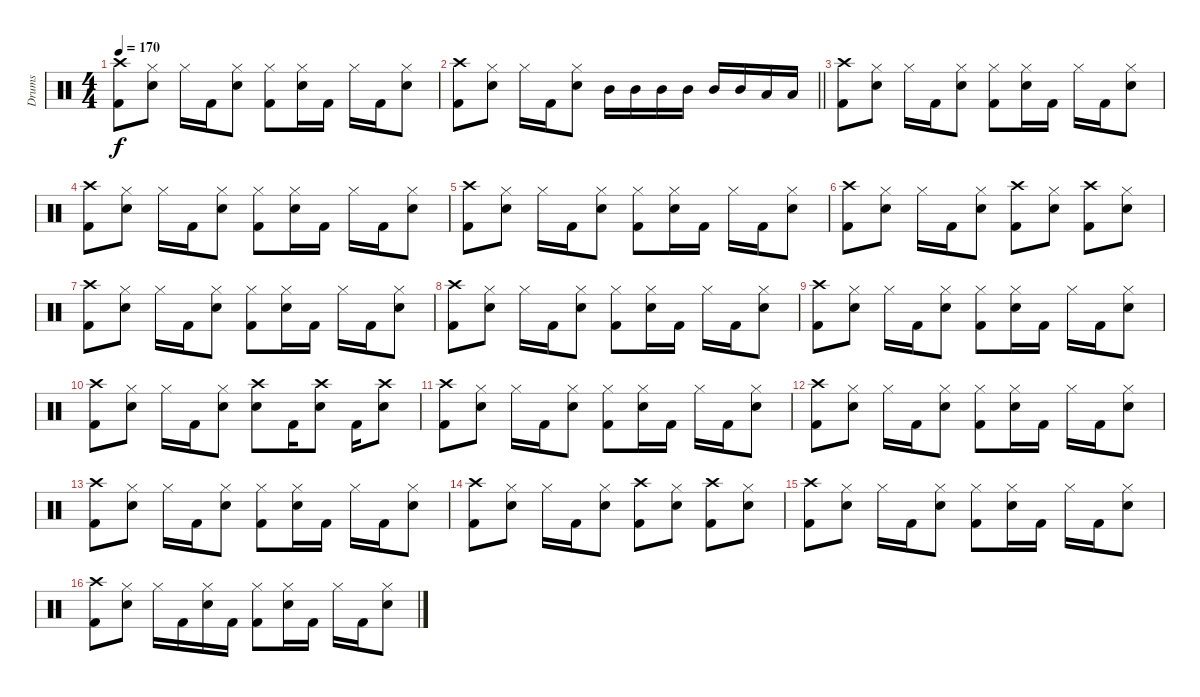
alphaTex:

\track ("Drums" "Drums") {instrument percussion}
\staff {score}
\articulation defaults
\ts (4 4)
\tempo 170
\clef neutral
\ks c
("Crash high (hit)" "Kick (hit) 2").8{dy f} ("Hi-Hat (closed)" "Snare (hit) 2").8 "Hi-Hat (closed)".16 "Kick (hit) 2".16 ("Hi-Hat (closed)" "Snare (hit) 2").8 ("Hi-Hat (closed)" "Kick (hit) 2").8 ("Hi-Hat (closed)" "Snare (hit) 2").16 "Kick (hit) 2".16 "Hi-Hat (closed)".16 "Kick (hit) 2".16 ("Hi-Hat (closed)" "Snare (hit) 2").8 |
\barLineRight lightlight
("Crash high (hit)" "Kick (hit) 2").8 ("Hi-Hat (closed)" "Snare (hit) 2").8 "Hi-Hat (closed)".16 "Kick (hit) 2".16 ("Hi-Hat (closed)" "Snare (hit) 2").8 "Mid Tom (hit)".16 "Mid Tom (hit)".16 "Mid Tom (hit)".16 "Mid Tom (hit)".16 "Mid Tom (hit)".16 "Mid Tom (hit)".16 "Low Tom (hit)".16 "Low Tom (hit)".16 |
("Crash high (hit)" "Kick (hit) 2").8 ("Hi-Hat (closed)" "Snare (hit) 2").8 "Hi-Hat (closed)".16 "Kick (hit) 2".16 ("Hi-Hat (closed)" "Snare (hit) 2").8 ("Hi-Hat (closed)" "Kick (hit) 2").8 ("Hi-Hat (closed)" "Snare (hit) 2").16 "Kick (hit) 2".16 "Hi-Hat (closed)".16 "Kick (hit) 2".16 ("Hi-Hat (closed)" "Snare (hit) 2").8 |
("Crash high (hit)" "Kick (hit) 2").8 ("Hi-Hat (closed)" "Snare (hit) 2").8 "Hi-Hat (closed)".16 "Kick (hit) 2".16 ("Hi-Hat (closed)" "Snare (hit) 2").8 ("Hi-Hat (closed)" "Kick (hit) 2").8 ("Hi-Hat (closed)" "Snare (hit) 2").16 "Kick (hit) 2".16 "Hi-Hat (closed)".16 "Kick (hit) 2".16 ("Hi-Hat (closed)" "Snare (hit) 2").8 |
("Crash high (hit)" "Kick (hit) 2").8 ("Hi-Hat (closed)" "Snare (hit) 2").8 "Hi-Hat (closed)".16 "Kick (hit) 2".16 ("Hi-Hat (closed)" "Snare (hit) 2").8 ("Hi-Hat (closed)" "Kick (hit) 2").8 ("Hi-Hat (closed)" "Snare (hit) 2").16 "Kick (hit) 2".16 "Hi-Hat (closed)".16 "Kick (hit) 2".16 ("Hi-Hat (closed)" "Snare (hit) 2").8 |
("Crash high (hit)" "Kick (hit) 2").8 ("Hi-Hat (closed)" "Snare (hit) 2").8 "Hi-Hat (closed)".16 "Kick (hit) 2".16 ("Hi-Hat (closed)" "Snare (hit) 2").8 ("Crash high (hit)" "Kick (hit) 2").8 ("Hi-Hat (closed)" "Snare (hit) 2").8 ("Crash high (hit)" "Kick (hit) 2").8 ("Hi-Hat (closed)" "Snare (hit) 2").8 |
("Crash high (hit)" "Kick (hit) 2").8 ("Hi-Hat (closed)" "Snare (hit) 2").8 "Hi-Hat (closed)".16 "Kick (hit) 2".16 ("Hi-Hat (closed)" "Snare (hit) 2").8 ("Hi-Hat (closed)" "Kick (hit) 2").8 ("Hi-Hat (closed)" "Snare (hit) 2").16 "Kick (hit) 2".16 "Hi-Hat (closed)".16 "Kick (hit) 2".16 ("Hi-Hat (closed)" "Snare (hit) 2").8 |
("Crash high (hit)" "Kick (hit) 2").8 ("Hi-Hat (closed)" "Snare (hit) 2").8 "Hi-Hat (closed)".16 "Kick (hit) 2".16 ("Hi-Hat (closed)" "Snare (hit) 2").8 ("Hi-Hat (closed)" "Kick (hit) 2").8 ("Hi-Hat (closed)" "Snare (hit) 2").16 "Kick (hit) 2".16 "Hi-Hat (closed)".16 "Kick (hit) 2".16 ("Hi-Hat (closed)" "Snare (hit) 2").8 |
("Crash high (hit)" "Kick (hit) 2").8 ("Hi-Hat (closed)" "Snare (hit) 2").8 "Hi-Hat (closed)".16 "Kick (hit) 2".16 ("Hi-Hat (closed)" "Snare (hit) 2").8 ("Hi-Hat (closed)" "Kick (hit) 2").8 ("Hi-Hat (closed)" "Snare (hit) 2").16 "Kick (hit) 2".16 "Hi-Hat (closed)".16 "Kick (hit) 2".16 ("Hi-Hat (closed)" "Snare (hit) 2").8 |
("Crash high (hit)" "Kick (hit) 2").8 ("Hi-Hat (closed)" "Snare (hit) 2").8 "Hi-Hat (closed)".16 "Kick (hit) 2".16 ("Hi-Hat (closed)" "Snare (hit) 2").8 ("Crash high (hit)" "Snare (hit) 2").8 "Kick (hit) 2".16 ("Crash high (hit)" "Snare (hit) 2").8 "Kick (hit) 2".16 ("Crash high (hit)" "Snare (hit) 2").8 |
("Crash high (hit)" "Kick (hit) 2").8 ("Hi-Hat (closed)" "Snare (hit) 2").8 "Hi-Hat (closed)".16 "Kick (hit) 2".16 ("Hi-Hat (closed)" "Snare (hit) 2").8 ("Hi-Hat (closed)" "Kick (hit) 2").8 ("Hi-Hat (closed)" "Snare (hit) 2").16 "Kick (hit) 2".16 "Hi-Hat (closed)".16 "Kick (hit) 2".16 ("Hi-Hat (closed)" "Snare (hit) 2").8 |
("Crash high (hit)" "Kick (hit) 2").8 ("Hi-Hat (closed)" "Snare (hit) 2").8 "Hi-Hat (closed)".16 "Kick (hit) 2".16 ("Hi-Hat (closed)" "Snare (hit) 2").8 ("Hi-Hat (closed)" "Kick (hit) 2").8 ("Hi-Hat (closed)" "Snare (hit) 2").16 "Kick (hit) 2".16 "Hi-Hat (closed)".16 "Kick (hit) 2".16 ("Hi-Hat (closed)" "Snare (hit) 2").8 |
("Crash high (hit)" "Kick (hit) 2").8 ("Hi-Hat (closed)" "Snare (hit) 2").8 "Hi-Hat (closed)".16 "Kick (hit) 2".16 ("Hi-Hat (closed)" "Snare (hit) 2").8 ("Hi-Hat (closed)" "Kick (hit) 2").8 ("Hi-Hat (closed)" "Snare (hit) 2").16 "Kick (hit) 2".16 "Hi-Hat (closed)".16 "Kick (hit) 2".16 ("Hi-Hat (closed)" "Snare (hit) 2").8 |
("Crash high (hit)" "Kick (hit) 2").8 ("Hi-Hat (closed)" "Snare (hit) 2").8 "Hi-Hat (closed)".16 "Kick (hit) 2".16 ("Hi-Hat (closed)" "Snare (hit) 2").8 ("Crash high (hit)" "Kick (hit) 2").8 ("Hi-Hat (closed)" "Snare (hit) 2").8 ("Crash high (hit)" "Kick (hit) 2").8 ("Hi-Hat (closed)" "Snare (hit) 2").8 |
("Crash high (hit)" "Kick (hit) 2").8 ("Hi-Hat (closed)" "Snare (hit) 2").8 "Hi-Hat (closed)".16 "Kick (hit) 2".16 ("Hi-Hat (closed)" "Snare (hit) 2").8 ("Hi-Hat (closed)" "Kick (hit) 2").8 ("Hi-Hat (closed)" "Snare (hit) 2").16 "Kick (hit) 2".16 "Hi-Hat (closed)".16 "Kick (hit) 2".16 ("Hi-Hat (closed)" "Snare (hit) 2").8 |
("Crash high (hit)" "Kick (hit) 2").8 ("Hi-Hat (closed)" "Snare (hit) 2").8 "Hi-Hat (closed)".16 "Kick (hit) 2".16 ("Hi-Hat (closed)" "Snare (hit) 2").16 "Kick (hit) 2".16 ("Hi-Hat (closed)" "Kick (hit) 2").8 ("Hi-Hat (closed)" "Snare (hit) 2").16 "Kick (hit) 2".16 "Hi-Hat (closed)".16 "Kick (hit) 2".16 ("Hi-Hat (closed)" "Snare (hit) 2").8
